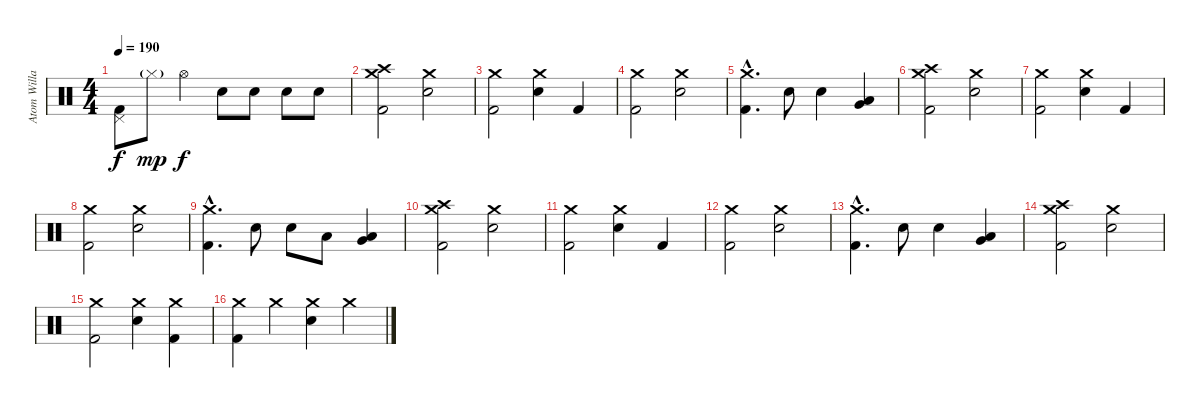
\track ("Atom Willard" "Atom Willa") {instrument percussion}
\staff {score}
\articulation defaults
\ts (4 4)
\tempo 190
\clef neutral
\ks c
("Pedal Hi-Hat (hit)" "Kick (hit) 2").8{dy f} "Hi-Hat (closed)"{g}.8{dy mp} "Hi-Hat (open)".4{dy f} "Electric Snare (hit)".8 "Electric Snare (hit)".8 "Electric Snare (hit)".8 "Electric Snare (hit)".8 |
("Crash high (hit)" "Crash medium (hit)" "Kick (hit) 2").2 ("Crash medium (hit)" "Electric Snare (hit)").2 |
("Crash medium (hit)" "Kick (hit) 2").2 ("Crash medium (hit)" "Electric Snare (hit)").4 "Kick (hit) 2".4 |
("Crash medium (hit)" "Kick (hit) 2").2 ("Crash medium (hit)" "Electric Snare (hit)").2 |
("Crash medium (hit)"{hac} "Kick (hit) 2"{hac}).4{d} "Electric Snare (hit)".8 "Electric Snare (hit)".4 ("Very Low Tom (hit)" "Low Floor Tom (hit)").4 |
("Crash high (hit)" "Crash medium (hit)" "Kick (hit) 2").2 ("Crash medium (hit)" "Electric Snare (hit)").2 |
("Crash medium (hit)" "Kick (hit) 2").2 ("Crash medium (hit)" "Electric Snare (hit)").4 "Kick (hit) 2".4 |
("Crash medium (hit)" "Kick (hit) 2").2 ("Crash medium (hit)" "Electric Snare (hit)").2 |
("Crash medium (hit)"{hac} "Kick (hit) 2"{hac}).4{d} "Electric Snare (hit)".8 "Electric Snare (hit)".8 "Low Tom (hit)".8 ("Very Low Tom (hit)" "Low Floor Tom (hit)").4 |
("Crash high (hit)" "Crash medium (hit)" "Kick (hit) 2").2 ("Crash medium (hit)" "Electric Snare (hit)").2 |
("Crash medium (hit)" "Kick (hit) 2").2 ("Crash medium (hit)" "Electric Snare (hit)").4 "Kick (hit) 2".4 |
("Crash medium (hit)" "Kick (hit) 2").2 ("Crash medium (hit)" "Electric Snare (hit)").2 |
("Crash medium (hit)"{hac} "Kick (hit) 2"{hac}).4{d} "Electric Snare (hit)".8 "Electric Snare (hit)".4 ("Very Low Tom (hit)" "Low Floor Tom (hit)").4 |
("Crash high (hit)" "Crash medium (hit)" "Kick (hit) 2").2 ("Crash medium (hit)" "Electric Snare (hit)").2 |
("Crash medium (hit)" "Kick (hit) 2").2 ("Crash medium (hit)" "Electric Snare (hit)").4 ("Crash medium (hit)" "Kick (hit) 2").4 |
("Crash medium (hit)" "Kick (hit) 2").4 "Crash medium (hit)".4 ("Crash medium (hit)" "Electric Snare (hit)").4 "Crash medium (hit)".4
